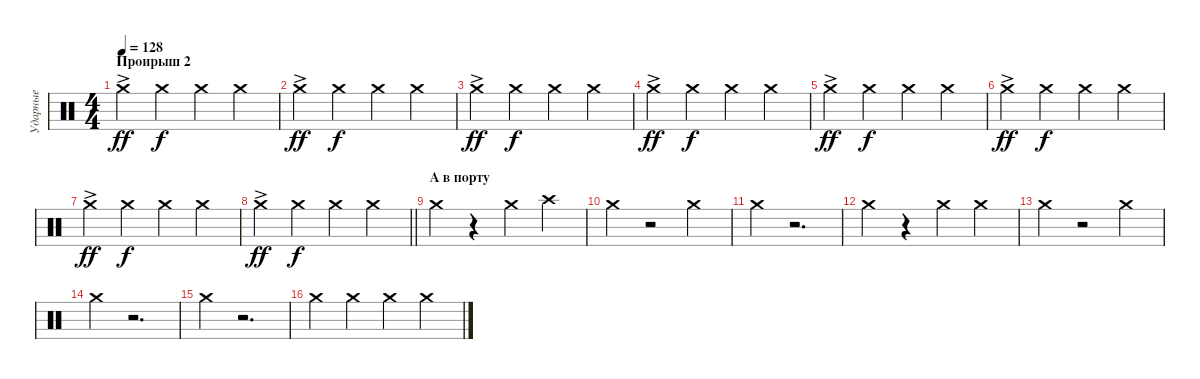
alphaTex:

\track ("Ударные" "Ударные") {instrument percussion}
\staff {score}
\articulation defaults
\ts (4 4)
\section ("" "Проирыш 2")
\tempo 128
\clef neutral
\ks c "Crash medium (hit)"{ac}.4{dy ff volume 3} "Crash medium (hit)".4{dy f} "Crash medium (hit)".4 "Crash medium (hit)".4
|
"Crash medium (hit)"{ac}.4{dy ff} "Crash medium (hit)".4{dy f} "Crash medium (hit)".4 "Crash medium (hit)".4 |
"Crash medium (hit)"{ac}.4{dy ff} "Crash medium (hit)".4{dy f} "Crash medium (hit)".4 "Crash medium (hit)".4 |
"Crash medium (hit)"{ac}.4{dy ff} "Crash medium (hit)".4{dy f} "Crash medium (hit)".4 "Crash medium (hit)".4 |
"Crash medium (hit)"{ac}.4{dy ff} "Crash medium (hit)".4{dy f} "Crash medium (hit)".4 "Crash medium (hit)".4 |
"Crash medium (hit)"{ac}.4{dy ff} "Crash medium (hit)".4{dy f} "Crash medium (hit)".4 "Crash medium (hit)".4 |
"Crash medium (hit)"{ac}.4{dy ff} "Crash medium (hit)".4{dy f} "Crash medium (hit)".4 "Crash medium (hit)".4 |
\barLineRight lightlight "Crash medium (hit)"{ac}.4{dy ff} "Crash medium (hit)".4{dy f} "Crash medium (hit)".4 "Crash medium (hit)".4
|
\section ("" "А в порту")
"Crash medium (hit)".4{volume 6} r.4 "Crash medium (hit)".4 "Crash high (hit)".4 |
"Crash medium (hit)".4 r.2 "Crash medium (hit)".4 |
"Crash medium (hit)".4 r.2{d} |
"Crash medium (hit)".4 r.4 "Crash medium (hit)".4 "Crash medium (hit)".4 |
"Crash medium (hit)".4 r.2 "Crash medium (hit)".4 |
"Crash medium (hit)".4 r.2{d} |
"Crash medium (hit)".4 r.2{d} |
"Crash medium (hit)".4 "Crash medium (hit)".4 "Crash medium (hit)".4 "Crash medium (hit)".4
